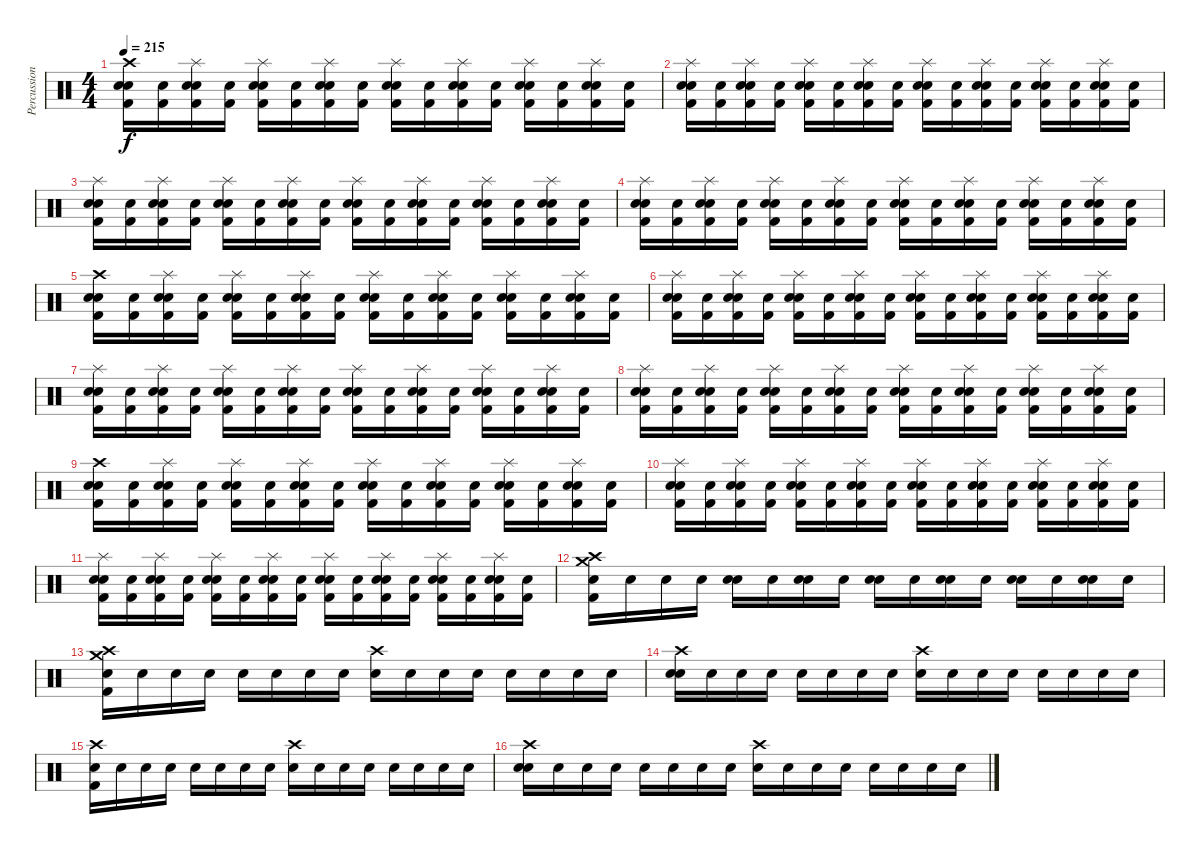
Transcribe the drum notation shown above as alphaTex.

\track ("Percussion" "Percussion") {instrument percussion}
\staff {score}
\articulation defaults
\ts (4 4)
\tempo 215
\clef neutral
\ks c
("Crash high (hit)" "Snare (hit) 2" "Kick (hit) 2" "Snare (hit)").16{dy f} ("Kick (hit) 2" "Snare (hit)").16 ("Splash (hit)" "Snare (hit) 2" "Kick (hit) 2" "Snare (hit)").16 ("Kick (hit) 2" "Snare (hit)").16 ("Splash (hit)" "Snare (hit) 2" "Kick (hit) 2" "Snare (hit)").16 ("Kick (hit) 2" "Snare (hit)").16 ("Splash (hit)" "Snare (hit) 2" "Kick (hit) 2" "Snare (hit)").16 ("Kick (hit) 2" "Snare (hit)").16 ("Splash (hit)" "Snare (hit) 2" "Kick (hit) 2" "Snare (hit)").16 ("Kick (hit) 2" "Snare (hit)").16 ("Splash (hit)" "Snare (hit) 2" "Kick (hit) 2" "Snare (hit)").16 ("Kick (hit) 2" "Snare (hit)").16 ("Splash (hit)" "Snare (hit) 2" "Kick (hit) 2" "Snare (hit)").16 ("Kick (hit) 2" "Snare (hit)").16 ("Splash (hit)" "Snare (hit) 2" "Kick (hit) 2" "Snare (hit)").16 ("Kick (hit) 2" "Snare (hit)").16 |
("Splash (hit)" "Snare (hit) 2" "Kick (hit) 2" "Snare (hit)").16 ("Kick (hit) 2" "Snare (hit)").16 ("Splash (hit)" "Snare (hit) 2" "Kick (hit) 2" "Snare (hit)").16 ("Kick (hit) 2" "Snare (hit)").16 ("Splash (hit)" "Snare (hit) 2" "Kick (hit) 2" "Snare (hit)").16 ("Kick (hit) 2" "Snare (hit)").16 ("Splash (hit)" "Snare (hit) 2" "Kick (hit) 2" "Snare (hit)").16 ("Kick (hit) 2" "Snare (hit)").16 ("Splash (hit)" "Snare (hit) 2" "Kick (hit) 2" "Snare (hit)").16 ("Kick (hit) 2" "Snare (hit)").16 ("Splash (hit)" "Snare (hit) 2" "Kick (hit) 2" "Snare (hit)").16 ("Kick (hit) 2" "Snare (hit)").16 ("Splash (hit)" "Snare (hit) 2" "Kick (hit) 2" "Snare (hit)").16 ("Kick (hit) 2" "Snare (hit)").16 ("Splash (hit)" "Snare (hit) 2" "Kick (hit) 2" "Snare (hit)").16 ("Kick (hit) 2" "Snare (hit)").16 |
("Splash (hit)" "Snare (hit) 2" "Kick (hit) 2" "Snare (hit)").16 ("Kick (hit) 2" "Snare (hit)").16 ("Splash (hit)" "Snare (hit) 2" "Kick (hit) 2" "Snare (hit)").16 ("Kick (hit) 2" "Snare (hit)").16 ("Splash (hit)" "Snare (hit) 2" "Kick (hit) 2" "Snare (hit)").16 ("Kick (hit) 2" "Snare (hit)").16 ("Splash (hit)" "Snare (hit) 2" "Kick (hit) 2" "Snare (hit)").16 ("Kick (hit) 2" "Snare (hit)").16 ("Splash (hit)" "Snare (hit) 2" "Kick (hit) 2" "Snare (hit)").16 ("Kick (hit) 2" "Snare (hit)").16 ("Splash (hit)" "Snare (hit) 2" "Kick (hit) 2" "Snare (hit)").16 ("Kick (hit) 2" "Snare (hit)").16 ("Splash (hit)" "Snare (hit) 2" "Kick (hit) 2" "Snare (hit)").16 ("Kick (hit) 2" "Snare (hit)").16 ("Splash (hit)" "Snare (hit) 2" "Kick (hit) 2" "Snare (hit)").16 ("Kick (hit) 2" "Snare (hit)").16 |
("Splash (hit)" "Snare (hit) 2" "Kick (hit) 2" "Snare (hit)").16 ("Kick (hit) 2" "Snare (hit)").16 ("Splash (hit)" "Snare (hit) 2" "Kick (hit) 2" "Snare (hit)").16 ("Kick (hit) 2" "Snare (hit)").16 ("Splash (hit)" "Snare (hit) 2" "Kick (hit) 2" "Snare (hit)").16 ("Kick (hit) 2" "Snare (hit)").16 ("Splash (hit)" "Snare (hit) 2" "Kick (hit) 2" "Snare (hit)").16 ("Kick (hit) 2" "Snare (hit)").16 ("Splash (hit)" "Snare (hit) 2" "Kick (hit) 2" "Snare (hit)").16 ("Kick (hit) 2" "Snare (hit)").16 ("Splash (hit)" "Snare (hit) 2" "Kick (hit) 2" "Snare (hit)").16 ("Kick (hit) 2" "Snare (hit)").16 ("Splash (hit)" "Snare (hit) 2" "Kick (hit) 2" "Snare (hit)").16 ("Kick (hit) 2" "Snare (hit)").16 ("Splash (hit)" "Snare (hit) 2" "Kick (hit) 2" "Snare (hit)").16 ("Kick (hit) 2" "Snare (hit)").16 |
("Crash high (hit)" "Snare (hit) 2" "Kick (hit) 2" "Snare (hit)").16 ("Kick (hit) 2" "Snare (hit)").16 ("Splash (hit)" "Snare (hit) 2" "Kick (hit) 2" "Snare (hit)").16 ("Kick (hit) 2" "Snare (hit)").16 ("Splash (hit)" "Snare (hit) 2" "Kick (hit) 2" "Snare (hit)").16 ("Kick (hit) 2" "Snare (hit)").16 ("Splash (hit)" "Snare (hit) 2" "Kick (hit) 2" "Snare (hit)").16 ("Kick (hit) 2" "Snare (hit)").16 ("Splash (hit)" "Snare (hit) 2" "Kick (hit) 2" "Snare (hit)").16 ("Kick (hit) 2" "Snare (hit)").16 ("Splash (hit)" "Snare (hit) 2" "Kick (hit) 2" "Snare (hit)").16 ("Kick (hit) 2" "Snare (hit)").16 ("Splash (hit)" "Snare (hit) 2" "Kick (hit) 2" "Snare (hit)").16 ("Kick (hit) 2" "Snare (hit)").16 ("Splash (hit)" "Snare (hit) 2" "Kick (hit) 2" "Snare (hit)").16 ("Kick (hit) 2" "Snare (hit)").16 |
("Splash (hit)" "Snare (hit) 2" "Kick (hit) 2" "Snare (hit)").16 ("Kick (hit) 2" "Snare (hit)").16 ("Splash (hit)" "Snare (hit) 2" "Kick (hit) 2" "Snare (hit)").16 ("Kick (hit) 2" "Snare (hit)").16 ("Splash (hit)" "Snare (hit) 2" "Kick (hit) 2" "Snare (hit)").16 ("Kick (hit) 2" "Snare (hit)").16 ("Splash (hit)" "Snare (hit) 2" "Kick (hit) 2" "Snare (hit)").16 ("Kick (hit) 2" "Snare (hit)").16 ("Splash (hit)" "Snare (hit) 2" "Kick (hit) 2" "Snare (hit)").16 ("Kick (hit) 2" "Snare (hit)").16 ("Splash (hit)" "Snare (hit) 2" "Kick (hit) 2" "Snare (hit)").16 ("Kick (hit) 2" "Snare (hit)").16 ("Splash (hit)" "Snare (hit) 2" "Kick (hit) 2" "Snare (hit)").16 ("Kick (hit) 2" "Snare (hit)").16 ("Splash (hit)" "Snare (hit) 2" "Kick (hit) 2" "Snare (hit)").16 ("Kick (hit) 2" "Snare (hit)").16 |
("Splash (hit)" "Snare (hit) 2" "Kick (hit) 2" "Snare (hit)").16 ("Kick (hit) 2" "Snare (hit)").16 ("Splash (hit)" "Snare (hit) 2" "Kick (hit) 2" "Snare (hit)").16 ("Kick (hit) 2" "Snare (hit)").16 ("Splash (hit)" "Snare (hit) 2" "Kick (hit) 2" "Snare (hit)").16 ("Kick (hit) 2" "Snare (hit)").16 ("Splash (hit)" "Snare (hit) 2" "Kick (hit) 2" "Snare (hit)").16 ("Kick (hit) 2" "Snare (hit)").16 ("Splash (hit)" "Snare (hit) 2" "Kick (hit) 2" "Snare (hit)").16 ("Kick (hit) 2" "Snare (hit)").16 ("Splash (hit)" "Snare (hit) 2" "Kick (hit) 2" "Snare (hit)").16 ("Kick (hit) 2" "Snare (hit)").16 ("Splash (hit)" "Snare (hit) 2" "Kick (hit) 2" "Snare (hit)").16 ("Kick (hit) 2" "Snare (hit)").16 ("Splash (hit)" "Snare (hit) 2" "Kick (hit) 2" "Snare (hit)").16 ("Kick (hit) 2" "Snare (hit)").16 |
("Splash (hit)" "Snare (hit) 2" "Kick (hit) 2" "Snare (hit)").16 ("Kick (hit) 2" "Snare (hit)").16 ("Splash (hit)" "Snare (hit) 2" "Kick (hit) 2" "Snare (hit)").16 ("Kick (hit) 2" "Snare (hit)").16 ("Splash (hit)" "Snare (hit) 2" "Kick (hit) 2" "Snare (hit)").16 ("Kick (hit) 2" "Snare (hit)").16 ("Splash (hit)" "Snare (hit) 2" "Kick (hit) 2" "Snare (hit)").16 ("Kick (hit) 2" "Snare (hit)").16 ("Splash (hit)" "Snare (hit) 2" "Kick (hit) 2" "Snare (hit)").16 ("Kick (hit) 2" "Snare (hit)").16 ("Splash (hit)" "Snare (hit) 2" "Kick (hit) 2" "Snare (hit)").16 ("Kick (hit) 2" "Snare (hit)").16 ("Splash (hit)" "Snare (hit) 2" "Kick (hit) 2" "Snare (hit)").16 ("Kick (hit) 2" "Snare (hit)").16 ("Splash (hit)" "Snare (hit) 2" "Kick (hit) 2" "Snare (hit)").16 ("Kick (hit) 2" "Snare (hit)").16 |
("Crash high (hit)" "Snare (hit) 2" "Kick (hit) 2" "Snare (hit)").16 ("Kick (hit) 2" "Snare (hit)").16 ("Splash (hit)" "Snare (hit) 2" "Kick (hit) 2" "Snare (hit)").16 ("Kick (hit) 2" "Snare (hit)").16 ("Splash (hit)" "Snare (hit) 2" "Kick (hit) 2" "Snare (hit)").16 ("Kick (hit) 2" "Snare (hit)").16 ("Splash (hit)" "Snare (hit) 2" "Kick (hit) 2" "Snare (hit)").16 ("Kick (hit) 2" "Snare (hit)").16 ("Splash (hit)" "Snare (hit) 2" "Kick (hit) 2" "Snare (hit)").16 ("Kick (hit) 2" "Snare (hit)").16 ("Splash (hit)" "Snare (hit) 2" "Kick (hit) 2" "Snare (hit)").16 ("Kick (hit) 2" "Snare (hit)").16 ("Splash (hit)" "Snare (hit) 2" "Kick (hit) 2" "Snare (hit)").16 ("Kick (hit) 2" "Snare (hit)").16 ("Splash (hit)" "Snare (hit) 2" "Kick (hit) 2" "Snare (hit)").16 ("Kick (hit) 2" "Snare (hit)").16 |
("Splash (hit)" "Snare (hit) 2" "Kick (hit) 2" "Snare (hit)").16 ("Kick (hit) 2" "Snare (hit)").16 ("Splash (hit)" "Snare (hit) 2" "Kick (hit) 2" "Snare (hit)").16 ("Kick (hit) 2" "Snare (hit)").16 ("Splash (hit)" "Snare (hit) 2" "Kick (hit) 2" "Snare (hit)").16 ("Kick (hit) 2" "Snare (hit)").16 ("Splash (hit)" "Snare (hit) 2" "Kick (hit) 2" "Snare (hit)").16 ("Kick (hit) 2" "Snare (hit)").16 ("Splash (hit)" "Snare (hit) 2" "Kick (hit) 2" "Snare (hit)").16 ("Kick (hit) 2" "Snare (hit)").16 ("Splash (hit)" "Snare (hit) 2" "Kick (hit) 2" "Snare (hit)").16 ("Kick (hit) 2" "Snare (hit)").16 ("Splash (hit)" "Snare (hit) 2" "Kick (hit) 2" "Snare (hit)").16 ("Kick (hit) 2" "Snare (hit)").16 ("Splash (hit)" "Snare (hit) 2" "Kick (hit) 2" "Snare (hit)").16 ("Kick (hit) 2" "Snare (hit)").16 |
("Splash (hit)" "Snare (hit) 2" "Kick (hit) 2" "Snare (hit)").16 ("Kick (hit) 2" "Snare (hit)").16 ("Splash (hit)" "Snare (hit) 2" "Kick (hit) 2" "Snare (hit)").16 ("Kick (hit) 2" "Snare (hit)").16 ("Splash (hit)" "Snare (hit) 2" "Kick (hit) 2" "Snare (hit)").16 ("Kick (hit) 2" "Snare (hit)").16 ("Splash (hit)" "Snare (hit) 2" "Kick (hit) 2" "Snare (hit)").16 ("Kick (hit) 2" "Snare (hit)").16 ("Splash (hit)" "Snare (hit) 2" "Kick (hit) 2" "Snare (hit)").16 ("Kick (hit) 2" "Snare (hit)").16 ("Splash (hit)" "Snare (hit) 2" "Kick (hit) 2" "Snare (hit)").16 ("Kick (hit) 2" "Snare (hit)").16 ("Splash (hit)" "Snare (hit) 2" "Kick (hit) 2" "Snare (hit)").16 ("Kick (hit) 2" "Snare (hit)").16 ("Splash (hit)" "Snare (hit) 2" "Kick (hit) 2" "Snare (hit)").16 ("Kick (hit) 2" "Snare (hit)").16 |
("Crash high (hit)" "Crash medium (hit)" "Kick (hit) 2" "Snare (hit)").16 "Snare (hit)".16 "Snare (hit)".16 "Snare (hit)".16 ("Snare (hit) 2" "Snare (hit)").16 "Snare (hit)".16 ("Snare (hit) 2" "Snare (hit)").16 "Snare (hit)".16 ("Snare (hit) 2" "Snare (hit)").16 "Snare (hit)".16 ("Snare (hit) 2" "Snare (hit)").16 "Snare (hit)".16 ("Snare (hit) 2" "Snare (hit)").16 "Snare (hit)".16 ("Snare (hit) 2" "Snare (hit)").16 "Snare (hit)".16 |
("Crash high (hit)" "Crash medium (hit)" "Kick (hit) 2" "Snare (hit)").16 "Snare (hit)".16 "Snare (hit)".16 "Snare (hit)".16 "Snare (hit)".16 "Snare (hit)".16 "Snare (hit)".16 "Snare (hit)".16 ("Crash high (hit)" "Snare (hit)").16 "Snare (hit)".16 "Snare (hit)".16 "Snare (hit)".16 "Snare (hit)".16 "Snare (hit)".16 "Snare (hit)".16 "Snare (hit)".16 |
("Crash high (hit)" "Snare (hit) 2" "Snare (hit)").16 "Snare (hit)".16 "Snare (hit)".16 "Snare (hit)".16 "Snare (hit)".16 "Snare (hit)".16 "Snare (hit)".16 "Snare (hit)".16 ("Crash high (hit)" "Snare (hit)").16 "Snare (hit)".16 "Snare (hit)".16 "Snare (hit)".16 "Snare (hit)".16 "Snare (hit)".16 "Snare (hit)".16 "Snare (hit)".16 |
("Crash high (hit)" "Kick (hit) 2" "Snare (hit)").16 "Snare (hit)".16 "Snare (hit)".16 "Snare (hit)".16 "Snare (hit)".16 "Snare (hit)".16 "Snare (hit)".16 "Snare (hit)".16 ("Crash high (hit)" "Snare (hit)").16 "Snare (hit)".16 "Snare (hit)".16 "Snare (hit)".16 "Snare (hit)".16 "Snare (hit)".16 "Snare (hit)".16 "Snare (hit)".16 |
("Crash high (hit)" "Snare (hit) 2" "Snare (hit)").16 "Snare (hit)".16 "Snare (hit)".16 "Snare (hit)".16 "Snare (hit)".16 "Snare (hit)".16 "Snare (hit)".16 "Snare (hit)".16 ("Crash high (hit)" "Snare (hit)").16 "Snare (hit)".16 "Snare (hit)".16 "Snare (hit)".16 "Snare (hit)".16 "Snare (hit)".16 "Snare (hit)".16 "Snare (hit)".16
